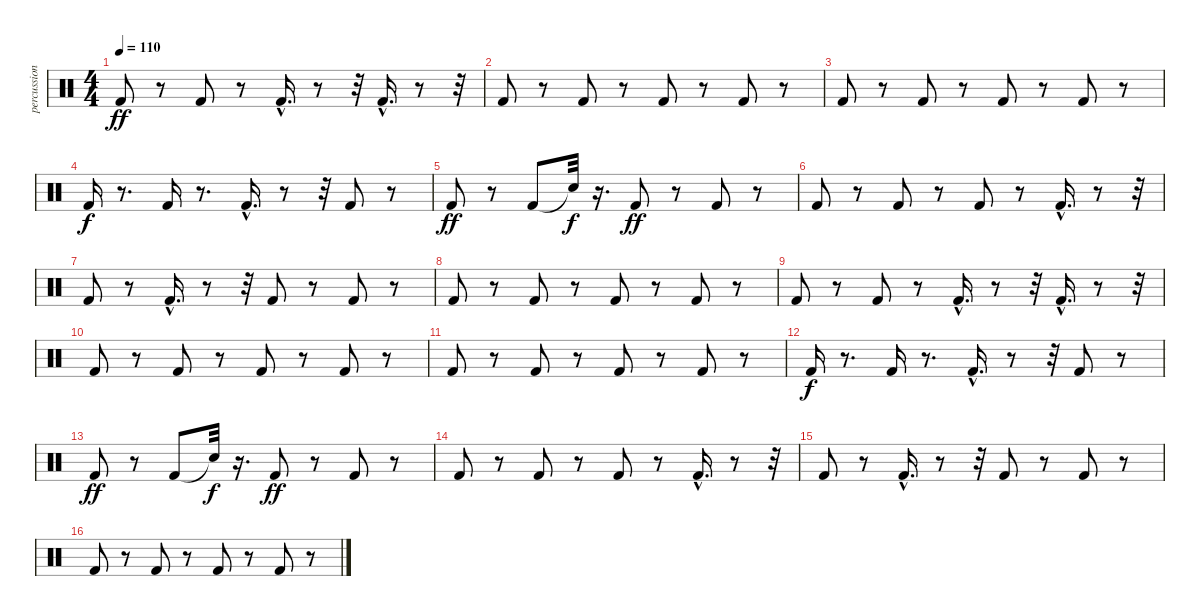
\track ("percussions 1" "percussion") {instrument percussion}
\staff {score}
\articulation defaults
\ts (4 4)
\tempo 110
\clef neutral
\ks c "Kick (hit) 2".8{dy ff}
r.8 "Kick (hit) 2".8 r.8 "Kick (hit) 2"{hac}.16{d} r.8 r.32 "Kick (hit) 2"{hac}.16{d} r.8 r.32 |
"Kick (hit) 2".8 r.8 "Kick (hit) 2".8 r.8 "Kick (hit) 2".8 r.8 "Kick (hit) 2".8 r.8 |
"Kick (hit) 2".8 r.8 "Kick (hit) 2".8 r.8 "Kick (hit) 2".8 r.8 "Kick (hit) 2".8 r.8 |
"Kick (hit) 2".16{dy f} r.8{d} "Kick (hit) 2".16 r.8{d} "Kick (hit) 2"{hac}.16{d} r.8 r.32 "Kick (hit) 2".8 r.8 |
"Kick (hit) 2".8{dy ff} r.8 "Kick (hit) 2".8 "Snare (hit)"{t}.32{dy f} r.16{d} "Kick (hit) 2".8{dy ff} r.8 "Kick (hit) 2".8 r.8 |
"Kick (hit) 2".8 r.8 "Kick (hit) 2".8 r.8 "Kick (hit) 2".8 r.8 "Kick (hit) 2"{hac}.16{d} r.8 r.32 |
"Kick (hit) 2".8 r.8 "Kick (hit) 2"{hac}.16{d} r.8 r.32 "Kick (hit) 2".8 r.8 "Kick (hit) 2".8 r.8 |
"Kick (hit) 2".8 r.8 "Kick (hit) 2".8 r.8 "Kick (hit) 2".8 r.8 "Kick (hit) 2".8 r.8 |
"Kick (hit) 2".8 r.8 "Kick (hit) 2".8 r.8 "Kick (hit) 2"{hac}.16{d} r.8 r.32 "Kick (hit) 2"{hac}.16{d} r.8 r.32 |
"Kick (hit) 2".8 r.8 "Kick (hit) 2".8 r.8 "Kick (hit) 2".8 r.8 "Kick (hit) 2".8 r.8 |
"Kick (hit) 2".8 r.8 "Kick (hit) 2".8 r.8 "Kick (hit) 2".8 r.8 "Kick (hit) 2".8 r.8 |
"Kick (hit) 2".16{dy f} r.8{d} "Kick (hit) 2".16 r.8{d} "Kick (hit) 2"{hac}.16{d} r.8 r.32 "Kick (hit) 2".8 r.8 |
"Kick (hit) 2".8{dy ff} r.8 "Kick (hit) 2".8 "Snare (hit)"{t}.32{dy f} r.16{d} "Kick (hit) 2".8{dy ff} r.8 "Kick (hit) 2".8 r.8 |
"Kick (hit) 2".8 r.8 "Kick (hit) 2".8 r.8 "Kick (hit) 2".8 r.8 "Kick (hit) 2"{hac}.16{d} r.8 r.32 |
"Kick (hit) 2".8 r.8 "Kick (hit) 2"{hac}.16{d} r.8 r.32 "Kick (hit) 2".8 r.8 "Kick (hit) 2".8 r.8 |
"Kick (hit) 2".8 r.8 "Kick (hit) 2".8 r.8 "Kick (hit) 2".8 r.8 "Kick (hit) 2".8 r.8
